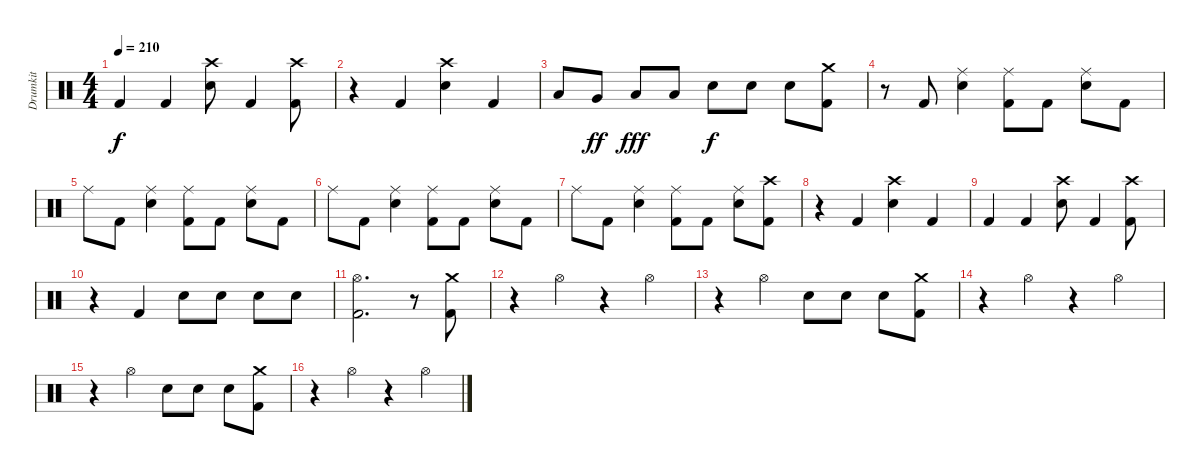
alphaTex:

\track ("Drumkit" "Drumkit") {instrument percussion}
\staff {score}
\articulation defaults
\ts (4 4)
\tempo 210
\clef neutral
\ks c "Kick (hit) 2".4{dy f} "Kick (hit) 2".4
("Crash high (hit)" "Electric Snare (hit)").8 "Kick (hit) 2".4 ("Crash high (hit)" "Kick (hit) 2").8 |
r.4 "Kick (hit) 2".4 ("Crash high (hit)" "Electric Snare (hit)").4 "Kick (hit) 2".4 |
"Low Tom (hit)".8 "Very Low Tom (hit)".8{dy ff} "Low Floor Tom (hit)".8{dy fff} "Low Floor Tom (hit)".8 "Electric Snare (hit)".8{dy f} "Electric Snare (hit)".8 "Electric Snare (hit)".8 ("Crash medium (hit)" "Kick (hit) 2").8 |
r.8 "Kick (hit) 2".8 ("Ride (middle)" "Electric Snare (hit)").4 ("Ride (middle)" "Kick (hit) 2").8 "Kick (hit) 2".8 ("Ride (middle)" "Electric Snare (hit)").8 "Kick (hit) 2".8 |
"Ride (middle)".8 "Kick (hit) 2".8 ("Ride (middle)" "Electric Snare (hit)").4 ("Ride (middle)" "Kick (hit) 2").8 "Kick (hit) 2".8 ("Ride (middle)" "Electric Snare (hit)").8 "Kick (hit) 2".8 |
"Ride (middle)".8 "Kick (hit) 2".8 ("Ride (middle)" "Electric Snare (hit)").4 ("Ride (middle)" "Kick (hit) 2").8 "Kick (hit) 2".8 ("Ride (middle)" "Electric Snare (hit)").8 "Kick (hit) 2".8 |
"Ride (middle)".8 "Kick (hit) 2".8 ("Ride (middle)" "Electric Snare (hit)").4 ("Ride (middle)" "Kick (hit) 2").8 "Kick (hit) 2".8 ("Ride (middle)" "Electric Snare (hit)").8 ("Crash high (hit)" "Kick (hit) 2").8 |
r.4 "Kick (hit) 2".4 ("Crash high (hit)" "Electric Snare (hit)").4 "Kick (hit) 2".4 |
"Kick (hit) 2".4 "Kick (hit) 2".4 ("Crash high (hit)" "Electric Snare (hit)").8 "Kick (hit) 2".4 ("Crash high (hit)" "Kick (hit) 2").8 |
r.4 "Kick (hit) 2".4 "Electric Snare (hit)".8 "Electric Snare (hit)".8 "Electric Snare (hit)".8 "Electric Snare (hit)".8 |
("Hi-Hat (open)" "Kick (hit) 2").2{d} r.8 ("Crash medium (hit)" "Kick (hit) 2").8 |
r.4 "Hi-Hat (open)".4 r.4 "Hi-Hat (open)".4 |
r.4 "Hi-Hat (open)".4 "Electric Snare (hit)".8 "Electric Snare (hit)".8 "Electric Snare (hit)".8 ("Crash medium (hit)" "Kick (hit) 2").8 |
r.4 "Hi-Hat (open)".4 r.4 "Hi-Hat (open)".4 |
r.4 "Hi-Hat (open)".4 "Electric Snare (hit)".8 "Electric Snare (hit)".8 "Electric Snare (hit)".8 ("Crash medium (hit)" "Kick (hit) 2").8 |
r.4 "Hi-Hat (open)".4 r.4 "Hi-Hat (open)".4
